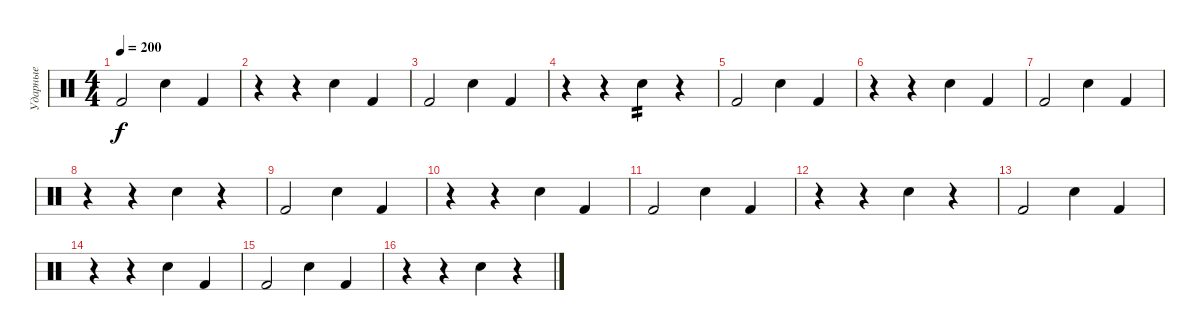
\track ("Ударные" "Ударные") {instrument percussion}
\staff {score}
\articulation defaults
\ts (4 4)
\tempo 200
\clef neutral
\ks c "Kick (hit) 2".2{dy f} "Snare (hit) 2".4 "Kick (hit) 2".4
|
r.4 r.4 "Snare (hit) 2".4 "Kick (hit) 2".4 |
"Kick (hit) 2".2 "Snare (hit) 2".4 "Kick (hit) 2".4 |
r.4 r.4 "Snare (hit) 2".4{tp 2} r.4 |
"Kick (hit) 2".2 "Snare (hit) 2".4 "Kick (hit) 2".4 |
r.4 r.4 "Snare (hit) 2".4 "Kick (hit) 2".4 |
"Kick (hit) 2".2 "Snare (hit) 2".4 "Kick (hit) 2".4 |
r.4 r.4 "Snare (hit) 2".4 r.4 |
"Kick (hit) 2".2 "Snare (hit) 2".4 "Kick (hit) 2".4 |
r.4 r.4 "Snare (hit) 2".4 "Kick (hit) 2".4 |
"Kick (hit) 2".2 "Snare (hit) 2".4 "Kick (hit) 2".4 |
r.4 r.4 "Snare (hit) 2".4 r.4 |
"Kick (hit) 2".2 "Snare (hit) 2".4 "Kick (hit) 2".4 |
r.4 r.4 "Snare (hit) 2".4 "Kick (hit) 2".4 |
"Kick (hit) 2".2 "Snare (hit) 2".4 "Kick (hit) 2".4 |
r.4 r.4 "Snare (hit) 2".4 r.4
